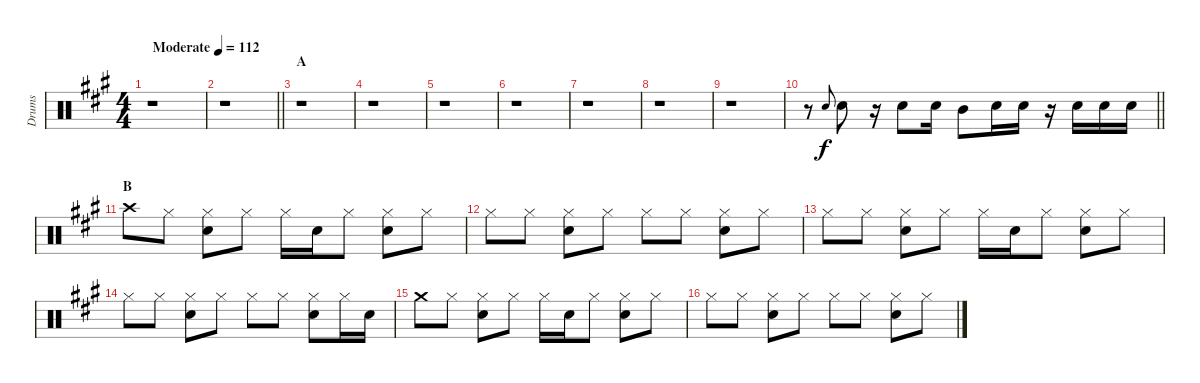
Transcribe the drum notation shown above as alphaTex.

\track ("Drums" "Drums") {instrument percussion}
\staff {score}
\articulation defaults
\ts (4 4)
\tempo (112 "Moderate")
\clef neutral
\ks a
r.1{dy f} |
\barLineRight lightlight
r.1 |
\section ("" "A")
r.1 |
r.1 |
r.1 |
r.1 |
r.1 |
r.1 |
r.1 |
\barLineRight lightlight
r.8 "Snare (hit) 2".8{gr onbeat} "Snare (hit) 2".8 r.16 "Snare (hit) 2".8 "Snare (hit) 2".16 "Mid Tom (hit)".8 "Snare (hit) 2".16 "Snare (hit) 2".16 r.16 "Snare (hit) 2".16 "Snare (hit) 2".16 "Snare (hit) 2".16 |
\section ("" "B")
"Crash high (hit)".8 "Hi-Hat (closed)".8 ("Hi-Hat (closed)" "Snare (hit) 2").8 "Hi-Hat (closed)".8 "Hi-Hat (closed)".16 "Snare (hit) 2".16 "Hi-Hat (closed)".8 ("Hi-Hat (closed)" "Snare (hit) 2").8 "Hi-Hat (closed)".8 |
"Hi-Hat (closed)".8 "Hi-Hat (closed)".8 ("Hi-Hat (closed)" "Snare (hit) 2").8 "Hi-Hat (closed)".8 "Hi-Hat (closed)".8 "Hi-Hat (closed)".8 ("Hi-Hat (closed)" "Snare (hit) 2").8 "Hi-Hat (closed)".8 |
"Hi-Hat (closed)".8 "Hi-Hat (closed)".8 ("Hi-Hat (closed)" "Snare (hit) 2").8 "Hi-Hat (closed)".8 "Hi-Hat (closed)".16 "Snare (hit) 2".16 "Hi-Hat (closed)".8 ("Hi-Hat (closed)" "Snare (hit) 2").8 "Hi-Hat (closed)".8 |
"Hi-Hat (closed)".8 "Hi-Hat (closed)".8 ("Hi-Hat (closed)" "Snare (hit) 2").8 "Hi-Hat (closed)".8 "Hi-Hat (closed)".8 "Hi-Hat (closed)".8 ("Hi-Hat (closed)" "Snare (hit) 2").8 "Hi-Hat (closed)".16 "Snare (hit) 2".16 |
"Crash medium (hit)".8 "Hi-Hat (closed)".8 ("Hi-Hat (closed)" "Snare (hit) 2").8 "Hi-Hat (closed)".8 "Hi-Hat (closed)".16 "Snare (hit) 2".16 "Hi-Hat (closed)".8 ("Hi-Hat (closed)" "Snare (hit) 2").8 "Hi-Hat (closed)".8 |
"Hi-Hat (closed)".8 "Hi-Hat (closed)".8 ("Hi-Hat (closed)" "Snare (hit) 2").8 "Hi-Hat (closed)".8 "Hi-Hat (closed)".8 "Hi-Hat (closed)".8 ("Hi-Hat (closed)" "Snare (hit) 2").8 "Hi-Hat (closed)".8
